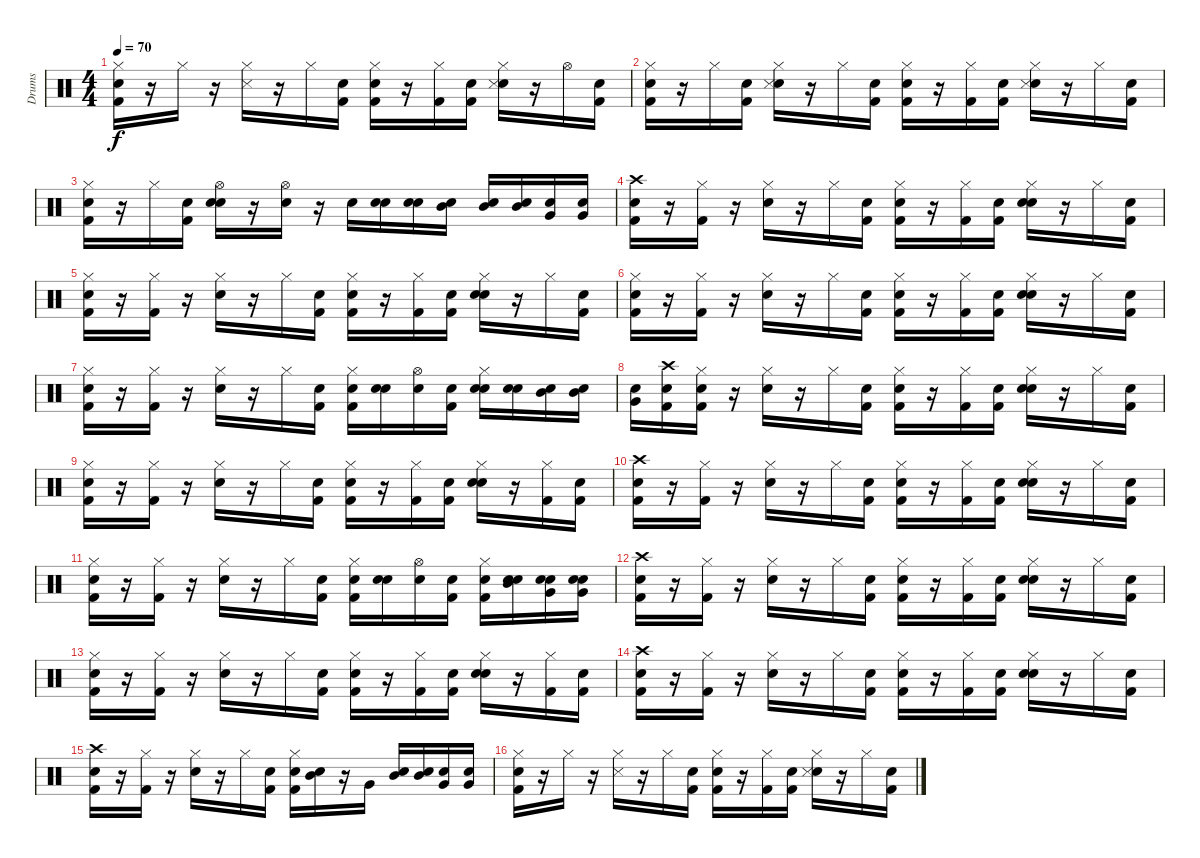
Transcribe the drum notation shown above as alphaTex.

\track ("Drums" "Drums") {instrument percussion}
\staff {score}
\articulation defaults
\ts (4 4)
\tempo 70
\clef neutral
\ks c
("Snare (hit)" "Kick (hit) 2" "Hi-Hat (closed)").16{dy f} r.16 "Hi-Hat (closed)".16 r.16 ("Snare (side stick) 3" "Hi-Hat (closed)").16 r.16 "Hi-Hat (closed)".16 ("Snare (hit)" "Kick (hit) 2").16 ("Snare (hit)" "Kick (hit) 2" "Hi-Hat (closed)").16 r.16 ("Kick (hit) 2" "Hi-Hat (closed)").16 ("Snare (hit)" "Kick (hit) 2").16 ("Snare (hit)" "Snare (side stick) 3" "Hi-Hat (closed)").16 r.16 "Hi-Hat (open)".16 ("Snare (hit)" "Kick (hit) 2").16 |
("Snare (hit)" "Kick (hit) 2" "Hi-Hat (closed)").16 r.16 "Hi-Hat (closed)".16 ("Snare (hit)" "Kick (hit) 2").16 ("Snare (hit)" "Snare (side stick) 3" "Hi-Hat (closed)").16 r.16 "Hi-Hat (closed)".16 ("Snare (hit)" "Kick (hit) 2").16 ("Snare (hit)" "Kick (hit) 2" "Hi-Hat (closed)").16 r.16 ("Kick (hit) 2" "Hi-Hat (closed)").16 ("Snare (hit)" "Kick (hit) 2").16 ("Snare (hit)" "Snare (side stick) 3" "Hi-Hat (closed)").16 r.16 "Hi-Hat (closed)".16 ("Snare (hit)" "Kick (hit) 2").16 |
("Snare (hit)" "Kick (hit) 2" "Hi-Hat (closed)").16 r.16 "Hi-Hat (closed)".16 ("Snare (hit)" "Kick (hit) 2").16 ("Snare (hit)" "Snare (hit) 2" "Hi-Hat (open)").16 r.16 ("Snare (hit) 2" "Hi-Hat (open)").16 r.16 "Snare (hit) 2".16 ("Snare (hit)" "Snare (hit) 2").16 ("Snare (hit)" "Snare (hit) 2").16 ("Snare (hit)" "Mid Tom (hit)").16 ("Snare (hit)" "Mid Tom (hit)").16 ("Snare (hit)" "Mid Tom (hit)").16 ("Snare (hit)" "Very Low Tom (hit)").16 ("Snare (hit)" "Very Low Tom (hit)").16 |
("Snare (hit)" "Kick (hit) 2" "Crash high (hit)").16 r.16 ("Kick (hit) 2" "Hi-Hat (closed)").16 r.16 ("Snare (hit) 2" "Hi-Hat (closed)").16 r.16 "Hi-Hat (closed)".16 ("Snare (hit)" "Kick (hit) 2").16 ("Snare (hit)" "Kick (hit) 2" "Hi-Hat (closed)").16 r.16 ("Kick (hit) 2" "Hi-Hat (closed)").16 ("Snare (hit)" "Kick (hit) 2").16 ("Snare (hit)" "Snare (hit) 2" "Hi-Hat (closed)").16 r.16 "Hi-Hat (closed)".16 ("Snare (hit)" "Kick (hit) 2").16 |
("Snare (hit)" "Kick (hit) 2" "Hi-Hat (closed)").16 r.16 ("Kick (hit) 2" "Hi-Hat (closed)").16 r.16 ("Snare (hit) 2" "Hi-Hat (closed)").16 r.16 "Hi-Hat (closed)".16 ("Snare (hit)" "Kick (hit) 2").16 ("Snare (hit)" "Kick (hit) 2" "Hi-Hat (closed)").16 r.16 ("Kick (hit) 2" "Hi-Hat (closed)").16 ("Snare (hit)" "Kick (hit) 2").16 ("Snare (hit)" "Snare (hit) 2" "Hi-Hat (closed)").16 r.16 "Hi-Hat (closed)".16 ("Snare (hit)" "Kick (hit) 2").16 |
("Snare (hit)" "Kick (hit) 2" "Hi-Hat (closed)").16 r.16 ("Kick (hit) 2" "Hi-Hat (closed)").16 r.16 ("Snare (hit) 2" "Hi-Hat (closed)").16 r.16 "Hi-Hat (closed)".16 ("Snare (hit)" "Kick (hit) 2").16 ("Snare (hit)" "Kick (hit) 2" "Hi-Hat (closed)").16 r.16 ("Kick (hit) 2" "Hi-Hat (closed)").16 ("Snare (hit)" "Kick (hit) 2").16 ("Snare (hit)" "Snare (hit) 2" "Hi-Hat (closed)").16 r.16 "Hi-Hat (closed)".16 ("Snare (hit)" "Kick (hit) 2").16 |
("Snare (hit)" "Kick (hit) 2" "Hi-Hat (closed)").16 r.16 ("Kick (hit) 2" "Hi-Hat (closed)").16 r.16 ("Snare (hit) 2" "Hi-Hat (closed)").16 r.16 "Hi-Hat (closed)".16 ("Snare (hit)" "Kick (hit) 2").16 ("Snare (hit)" "Kick (hit) 2" "Hi-Hat (closed)").16 ("Snare (hit)" "Snare (hit) 2").16 ("Snare (hit)" "Hi-Hat (open)").16 ("Snare (hit)" "Kick (hit) 2").16 ("Snare (hit)" "Snare (hit) 2" "Hi-Hat (closed)").16 ("Snare (hit)" "Snare (hit) 2").16 ("Snare (hit)" "Mid Tom (hit)").16 ("Snare (hit)" "Mid Tom (hit)").16 |
("Snare (hit)" "Very Low Tom (hit)").16 ("Snare (hit)" "Kick (hit) 2" "Crash high (hit)").16 ("Snare (hit)" "Kick (hit) 2" "Hi-Hat (closed)").16 r.16 ("Snare (hit) 2" "Hi-Hat (closed)").16 r.16 "Hi-Hat (closed)".16 ("Snare (hit)" "Kick (hit) 2").16 ("Snare (hit)" "Kick (hit) 2" "Hi-Hat (closed)").16 r.16 ("Kick (hit) 2" "Hi-Hat (closed)").16 ("Snare (hit)" "Kick (hit) 2").16 ("Snare (hit)" "Snare (hit) 2" "Hi-Hat (closed)").16 r.16 "Hi-Hat (closed)".16 ("Snare (hit)" "Kick (hit) 2").16 |
("Snare (hit)" "Kick (hit) 2" "Hi-Hat (closed)").16 r.16 ("Kick (hit) 2" "Hi-Hat (closed)").16 r.16 ("Snare (hit) 2" "Hi-Hat (closed)").16 r.16 "Hi-Hat (closed)".16 ("Snare (hit)" "Kick (hit) 2").16 ("Snare (hit)" "Kick (hit) 2" "Hi-Hat (closed)").16 r.16 ("Kick (hit) 2" "Hi-Hat (closed)").16 ("Snare (hit)" "Kick (hit) 2").16 ("Snare (hit)" "Snare (hit) 2" "Hi-Hat (closed)").16 r.16 ("Kick (hit) 2" "Hi-Hat (closed)").16 ("Snare (hit)" "Kick (hit) 2").16 |
("Snare (hit)" "Kick (hit) 2" "Crash high (hit)").16 r.16 ("Kick (hit) 2" "Hi-Hat (closed)").16 r.16 ("Snare (hit) 2" "Hi-Hat (closed)").16 r.16 "Hi-Hat (closed)".16 ("Snare (hit)" "Kick (hit) 2").16 ("Snare (hit)" "Kick (hit) 2" "Hi-Hat (closed)").16 r.16 ("Kick (hit) 2" "Hi-Hat (closed)").16 ("Snare (hit)" "Kick (hit) 2").16 ("Snare (hit)" "Snare (hit) 2" "Hi-Hat (closed)").16 r.16 "Hi-Hat (closed)".16 ("Snare (hit)" "Kick (hit) 2").16 |
("Snare (hit)" "Kick (hit) 2" "Hi-Hat (closed)").16 r.16 ("Kick (hit) 2" "Hi-Hat (closed)").16 r.16 ("Snare (hit) 2" "Hi-Hat (closed)").16 r.16 "Hi-Hat (closed)".16 ("Snare (hit)" "Kick (hit) 2").16 ("Snare (hit)" "Kick (hit) 2" "Hi-Hat (closed)").16 ("Snare (hit)" "Snare (hit) 2").16 ("Snare (hit)" "Hi-Hat (open)").16 ("Snare (hit)" "Kick (hit) 2").16 ("Snare (hit)" "Kick (hit) 2" "Hi-Hat (closed)").16 ("Snare (hit)" "Snare (hit) 2" "Mid Tom (hit)").16 ("Snare (hit)" "Snare (hit) 2" "Very Low Tom (hit)").16 ("Snare (hit)" "Snare (hit) 2" "Very Low Tom (hit)").16 |
("Snare (hit)" "Kick (hit) 2" "Crash high (hit)").16 r.16 ("Kick (hit) 2" "Hi-Hat (closed)").16 r.16 ("Snare (hit) 2" "Hi-Hat (closed)").16 r.16 "Hi-Hat (closed)".16 ("Snare (hit)" "Kick (hit) 2").16 ("Snare (hit)" "Kick (hit) 2" "Hi-Hat (closed)").16 r.16 ("Kick (hit) 2" "Hi-Hat (closed)").16 ("Snare (hit)" "Kick (hit) 2").16 ("Snare (hit)" "Snare (hit) 2" "Hi-Hat (closed)").16 r.16 "Hi-Hat (closed)".16 ("Snare (hit)" "Kick (hit) 2").16 |
("Snare (hit)" "Kick (hit) 2" "Hi-Hat (closed)").16 r.16 ("Kick (hit) 2" "Hi-Hat (closed)").16 r.16 ("Snare (hit) 2" "Hi-Hat (closed)").16 r.16 "Hi-Hat (closed)".16 ("Snare (hit)" "Kick (hit) 2").16 ("Snare (hit)" "Kick (hit) 2" "Hi-Hat (closed)").16 r.16 ("Kick (hit) 2" "Hi-Hat (closed)").16 ("Snare (hit)" "Kick (hit) 2").16 ("Snare (hit)" "Snare (hit) 2" "Hi-Hat (closed)").16 r.16 ("Kick (hit) 2" "Hi-Hat (closed)").16 ("Snare (hit)" "Kick (hit) 2").16 |
("Snare (hit)" "Kick (hit) 2" "Crash high (hit)").16 r.16 ("Kick (hit) 2" "Hi-Hat (closed)").16 r.16 ("Snare (hit) 2" "Hi-Hat (closed)").16 r.16 "Hi-Hat (closed)".16 ("Snare (hit)" "Kick (hit) 2").16 ("Snare (hit)" "Kick (hit) 2" "Hi-Hat (closed)").16 r.16 ("Kick (hit) 2" "Hi-Hat (closed)").16 ("Snare (hit)" "Kick (hit) 2").16 ("Snare (hit)" "Snare (hit) 2" "Hi-Hat (closed)").16 r.16 "Hi-Hat (closed)".16 ("Snare (hit)" "Kick (hit) 2").16 |
("Snare (hit)" "Kick (hit) 2" "Crash high (hit)").16 r.16 ("Kick (hit) 2" "Hi-Hat (closed)").16 r.16 ("Snare (hit) 2" "Hi-Hat (closed)").16 r.16 "Hi-Hat (closed)".16 ("Snare (hit)" "Kick (hit) 2").16 ("Snare (hit)" "Kick (hit) 2" "Hi-Hat (closed)").16 ("Snare (hit)" "Mid Tom (hit)").16 r.16 "Very Low Tom (hit)".16 ("Snare (hit)" "Mid Tom (hit)").16 ("Snare (hit)" "Mid Tom (hit)").16 ("Snare (hit)" "Very Low Tom (hit)").16 ("Snare (hit)" "Very Low Tom (hit)").16 |
("Snare (hit)" "Kick (hit) 2" "Hi-Hat (closed)").16 r.16 "Hi-Hat (closed)".16 r.16 ("Snare (side stick) 3" "Hi-Hat (closed)").16 r.16 "Hi-Hat (closed)".16 ("Snare (hit)" "Kick (hit) 2").16 ("Snare (hit)" "Kick (hit) 2" "Hi-Hat (closed)").16 r.16 ("Kick (hit) 2" "Hi-Hat (closed)").16 ("Snare (hit)" "Kick (hit) 2").16 ("Snare (hit)" "Snare (side stick) 3" "Hi-Hat (closed)").16 r.16 "Hi-Hat (closed)".16 ("Snare (hit)" "Kick (hit) 2").16
